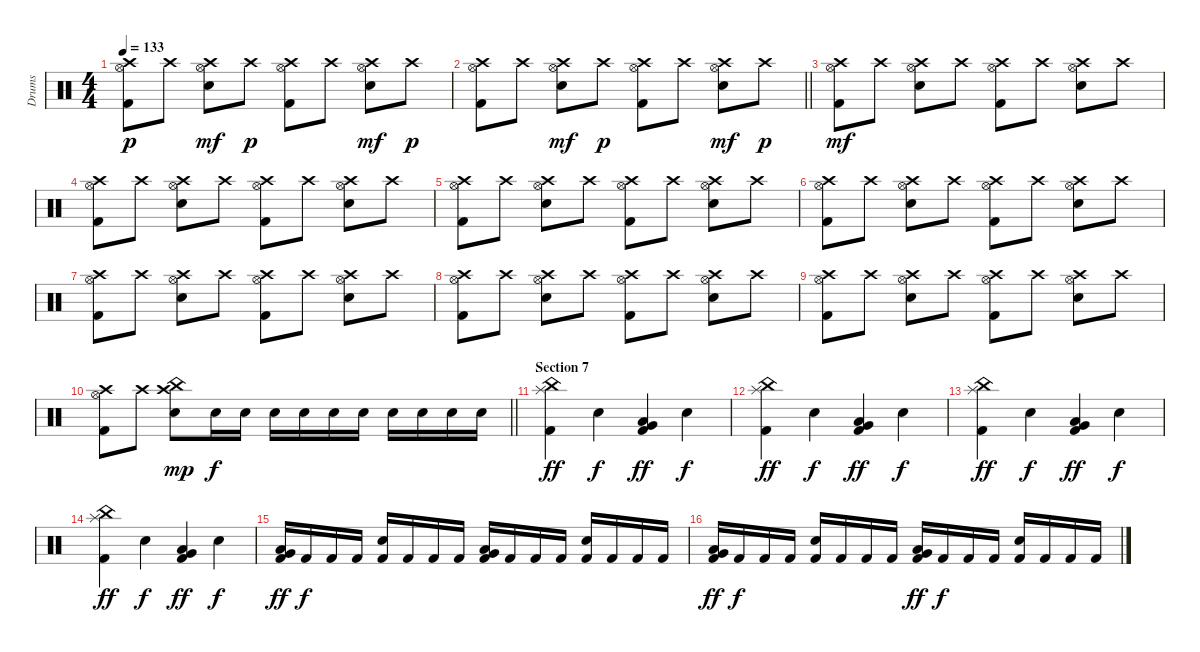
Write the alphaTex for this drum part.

\track ("Drums" "Drums") {instrument percussion}
\staff {score}
\articulation defaults
\ts (4 4)
\tempo 133
\clef neutral
\ks c
("Crash high (hit)" "Hi-Hat (open)" "Kick (hit) 2").8{dy p} "Crash high (hit)".8 ("Crash high (hit)" "Hi-Hat (open)" "Electric Snare (hit)").8{dy mf} "Crash high (hit)".8{dy p} ("Crash high (hit)" "Hi-Hat (open)" "Kick (hit) 2").8 "Crash high (hit)".8 ("Crash high (hit)" "Hi-Hat (open)" "Electric Snare (hit)").8{dy mf} "Crash high (hit)".8{dy p} |
\barLineRight lightlight
("Crash high (hit)" "Hi-Hat (open)" "Kick (hit) 2").8 "Crash high (hit)".8 ("Crash high (hit)" "Hi-Hat (open)" "Electric Snare (hit)").8{dy mf} "Crash high (hit)".8{dy p} ("Crash high (hit)" "Hi-Hat (open)" "Kick (hit) 2").8 "Crash high (hit)".8 ("Crash high (hit)" "Hi-Hat (open)" "Electric Snare (hit)").8{dy mf} "Crash high (hit)".8{dy p} |
("Crash high (hit)" "Hi-Hat (open)" "Kick (hit) 2").8{dy mf} "Crash high (hit)".8 ("Crash high (hit)" "Hi-Hat (open)" "Electric Snare (hit)").8 "Crash high (hit)".8 ("Crash high (hit)" "Hi-Hat (open)" "Kick (hit) 2").8 "Crash high (hit)".8 ("Crash high (hit)" "Hi-Hat (open)" "Electric Snare (hit)").8 "Crash high (hit)".8 |
("Crash high (hit)" "Hi-Hat (open)" "Kick (hit) 2").8 "Crash high (hit)".8 ("Crash high (hit)" "Hi-Hat (open)" "Electric Snare (hit)").8 "Crash high (hit)".8 ("Crash high (hit)" "Hi-Hat (open)" "Kick (hit) 2").8 "Crash high (hit)".8 ("Crash high (hit)" "Hi-Hat (open)" "Electric Snare (hit)").8 "Crash high (hit)".8 |
("Crash high (hit)" "Hi-Hat (open)" "Kick (hit) 2").8 "Crash high (hit)".8 ("Crash high (hit)" "Hi-Hat (open)" "Electric Snare (hit)").8 "Crash high (hit)".8 ("Crash high (hit)" "Hi-Hat (open)" "Kick (hit) 2").8 "Crash high (hit)".8 ("Crash high (hit)" "Hi-Hat (open)" "Electric Snare (hit)").8 "Crash high (hit)".8 |
("Crash high (hit)" "Hi-Hat (open)" "Kick (hit) 2").8 "Crash high (hit)".8 ("Crash high (hit)" "Hi-Hat (open)" "Electric Snare (hit)").8 "Crash high (hit)".8 ("Crash high (hit)" "Hi-Hat (open)" "Kick (hit) 2").8 "Crash high (hit)".8 ("Crash high (hit)" "Hi-Hat (open)" "Electric Snare (hit)").8 "Crash high (hit)".8 |
("Crash high (hit)" "Hi-Hat (open)" "Kick (hit) 2").8 "Crash high (hit)".8 ("Crash high (hit)" "Hi-Hat (open)" "Electric Snare (hit)").8 "Crash high (hit)".8 ("Crash high (hit)" "Hi-Hat (open)" "Kick (hit) 2").8 "Crash high (hit)".8 ("Crash high (hit)" "Hi-Hat (open)" "Electric Snare (hit)").8 "Crash high (hit)".8 |
("Crash high (hit)" "Hi-Hat (open)" "Kick (hit) 2").8 "Crash high (hit)".8 ("Crash high (hit)" "Hi-Hat (open)" "Electric Snare (hit)").8 "Crash high (hit)".8 ("Crash high (hit)" "Hi-Hat (open)" "Kick (hit) 2").8 "Crash high (hit)".8 ("Crash high (hit)" "Hi-Hat (open)" "Electric Snare (hit)").8 "Crash high (hit)".8 |
("Crash high (hit)" "Hi-Hat (open)" "Kick (hit) 2").8 "Crash high (hit)".8 ("Crash high (hit)" "Hi-Hat (open)" "Electric Snare (hit)").8 "Crash high (hit)".8 ("Crash high (hit)" "Hi-Hat (open)" "Kick (hit) 2").8 "Crash high (hit)".8 ("Crash high (hit)" "Hi-Hat (open)" "Electric Snare (hit)").8 "Crash high (hit)".8 |
\barLineRight lightlight
("Crash high (hit)" "Hi-Hat (open)" "Kick (hit) 2").8 "Crash high (hit)".8 ("Crash high (hit)" "China (hit)" "Electric Snare (hit)").8{dy mp} "Electric Snare (hit)".16{dy f} "Electric Snare (hit)".16 "Electric Snare (hit)".16 "Electric Snare (hit)".16 "Electric Snare (hit)".16 "Electric Snare (hit)".16 "Electric Snare (hit)".16 "Electric Snare (hit)".16 "Electric Snare (hit)".16 "Electric Snare (hit)".16 |
\section ("" "Section 7")
("Splash (hit)" "China (hit)" "Kick (hit) 2").4{dy ff} "Electric Snare (hit)".4{dy f} ("Very Low Tom (hit)" "Low Floor Tom (hit)" "Kick (hit) 2").4{dy ff} "Electric Snare (hit)".4{dy f} |
("Splash (hit)" "China (hit)" "Kick (hit) 2").4{dy ff} "Electric Snare (hit)".4{dy f} ("Very Low Tom (hit)" "Low Floor Tom (hit)" "Kick (hit) 2").4{dy ff} "Electric Snare (hit)".4{dy f} |
("Splash (hit)" "China (hit)" "Kick (hit) 2").4{dy ff} "Electric Snare (hit)".4{dy f} ("Very Low Tom (hit)" "Low Floor Tom (hit)" "Kick (hit) 2").4{dy ff} "Electric Snare (hit)".4{dy f} |
("Splash (hit)" "China (hit)" "Kick (hit) 2").4{dy ff} "Electric Snare (hit)".4{dy f} ("Very Low Tom (hit)" "Low Floor Tom (hit)" "Kick (hit) 2").4{dy ff} "Electric Snare (hit)".4{dy f} |
("Very Low Tom (hit)" "Low Floor Tom (hit)" "Kick (hit) 2").16{dy ff} "Kick (hit) 2".16{dy f} "Kick (hit) 2".16 "Kick (hit) 2".16 ("Electric Snare (hit)" "Kick (hit) 2").16 "Kick (hit) 2".16 "Kick (hit) 2".16 "Kick (hit) 2".16 ("Very Low Tom (hit)" "Low Floor Tom (hit)" "Kick (hit) 2").16 "Kick (hit) 2".16 "Kick (hit) 2".16 "Kick (hit) 2".16 ("Electric Snare (hit)" "Kick (hit) 2").16 "Kick (hit) 2".16 "Kick (hit) 2".16 "Kick (hit) 2".16 |
("Very Low Tom (hit)" "Low Floor Tom (hit)" "Kick (hit) 2").16{dy ff} "Kick (hit) 2".16{dy f} "Kick (hit) 2".16 "Kick (hit) 2".16 ("Electric Snare (hit)" "Kick (hit) 2").16 "Kick (hit) 2".16 "Kick (hit) 2".16 "Kick (hit) 2".16 ("Very Low Tom (hit)" "Low Floor Tom (hit)" "Kick (hit) 2").16{dy ff} "Kick (hit) 2".16{dy f} "Kick (hit) 2".16 "Kick (hit) 2".16 ("Electric Snare (hit)" "Kick (hit) 2").16 "Kick (hit) 2".16 "Kick (hit) 2".16 "Kick (hit) 2".16
